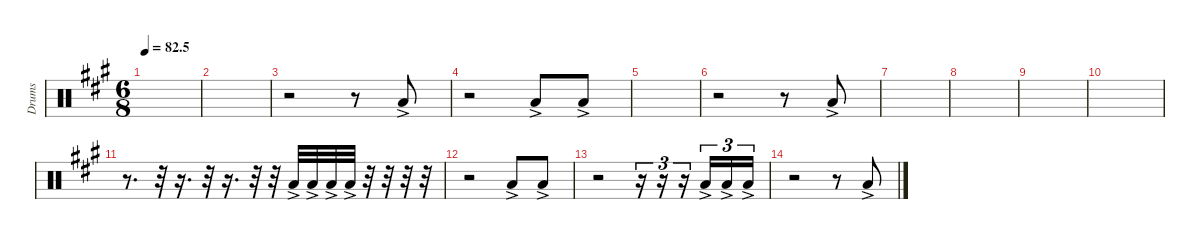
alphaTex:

\defaultSystemsLayout 4
\hideDynamics
\bracketExtendMode nobrackets
\otherSystemsTrackNameOrientation horizontal
\track ("Tom 03" "Drums") {instrument percussion}
\staff {score}
\articulation defaults
\ts (6 8)
\tempo
82.5
\accidentals auto
\clef neutral
\ottava regular
\simile none
\scale
0.333333
\ks a
|
\scale
0.333333 |
\scale
0.333333 r.2 r.8 "Low Tom (hit)"{ac acc forcenatural}.8 |
\scale
0.333333 r.2 "Low Tom (hit)"{ac acc forcenatural}.8 "Low Tom (hit)"{ac acc forcenatural}.8 |
\scale
0.333333 |
\scale
0.333333 r.2 r.8 "Low Tom (hit)"{ac acc forcenatural}.8 |
\scale
0.333333 |
\scale
0.333333 |
\scale
0.333333 |
\scale
0.333333 |
\scale
0.333333 r.8{d} r.32 r.16{d} r.32 r.16{d} r.32 r.32 "Low Tom (hit)"{ac acc forcenatural}.32 "Low Tom (hit)"{ac acc forcenatural}.32 "Low Tom (hit)"{ac acc forcenatural}.32 "Low Tom (hit)"{ac acc forcenatural}.32 r.32 r.32 r.32 r.32 |
\scale
0.333333 r.2 "Low Tom (hit)"{ac acc forcenatural}.8 "Low Tom (hit)"{ac acc forcenatural}.8 |
\scale
0.333333 r.2 r.16{tu (3 2)} r.16{tu (3 2)} r.16{tu (3 2)} "Low Tom (hit)"{ac acc forcenatural}.16{tu (3 2)} "Low Tom (hit)"{ac acc forcenatural}.16{tu (3 2)} "Low Tom (hit)"{ac acc forcenatural}.16{tu (3 2)} |
\scale
0.333333 r.2 r.8 "Low Tom (hit)"{ac acc forcenatural}.8 |
\scale
0.333333 |
\scale
0.333333
